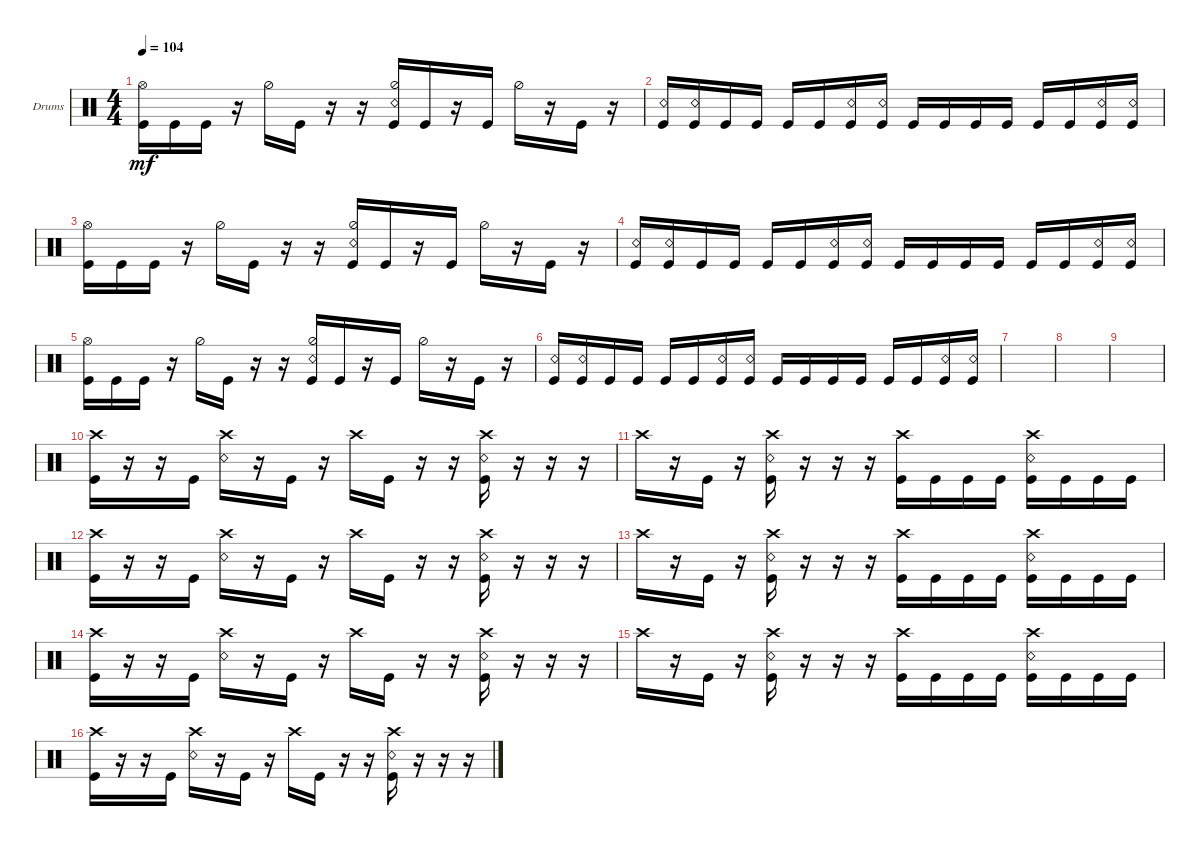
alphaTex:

\defaultSystemsLayout 4
\bracketExtendMode groupsimilarinstruments
\firstSystemTrackNameOrientation horizontal
\otherSystemsTrackNameOrientation horizontal
\track ("Drums" "Drums") {instrument percussion}
\staff {score}
\articulation defaults
\ts (4 4)
\tempo 104
\clef neutral
\ks c
("Kick (hit)" "Hi-Hat (open)").16{dy mf} "Kick (hit)".16 "Kick (hit)".16 r.16 "Hi-Hat (half)".16 "Kick (hit)".16 r.16 r.16 ("Kick (hit)" "Hi-Hat (half)" "Snare (rim shot)").16 "Kick (hit)".16 r.16 "Kick (hit)".16 "Hi-Hat (half)".16 r.16 "Kick (hit)".16 r.16 |
("Kick (hit)" "Snare (rim shot)").16 ("Kick (hit)" "Snare (rim shot)").16 "Kick (hit)".16 "Kick (hit)".16 "Kick (hit)".16 "Kick (hit)".16 ("Kick (hit)" "Snare (rim shot)").16 ("Kick (hit)" "Snare (rim shot)").16 "Kick (hit)".16 "Kick (hit)".16 "Kick (hit)".16 "Kick (hit)".16 "Kick (hit)".16 "Kick (hit)".16 ("Kick (hit)" "Snare (rim shot)").16 ("Kick (hit)" "Snare (rim shot)").16 |
("Kick (hit)" "Hi-Hat (open)").16 "Kick (hit)".16 "Kick (hit)".16 r.16 "Hi-Hat (half)".16 "Kick (hit)".16 r.16 r.16 ("Kick (hit)" "Hi-Hat (half)" "Snare (rim shot)").16 "Kick (hit)".16 r.16 "Kick (hit)".16 "Hi-Hat (half)".16 r.16 "Kick (hit)".16 r.16 |
("Kick (hit)" "Snare (rim shot)").16 ("Kick (hit)" "Snare (rim shot)").16 "Kick (hit)".16 "Kick (hit)".16 "Kick (hit)".16 "Kick (hit)".16 ("Kick (hit)" "Snare (rim shot)").16 ("Kick (hit)" "Snare (rim shot)").16 "Kick (hit)".16 "Kick (hit)".16 "Kick (hit)".16 "Kick (hit)".16 "Kick (hit)".16 "Kick (hit)".16 ("Kick (hit)" "Snare (rim shot)").16 ("Kick (hit)" "Snare (rim shot)").16 |
("Kick (hit)" "Hi-Hat (open)").16 "Kick (hit)".16 "Kick (hit)".16 r.16 "Hi-Hat (half)".16 "Kick (hit)".16 r.16 r.16 ("Kick (hit)" "Hi-Hat (half)" "Snare (rim shot)").16 "Kick (hit)".16 r.16 "Kick (hit)".16 "Hi-Hat (half)".16 r.16 "Kick (hit)".16 r.16 |
("Kick (hit)" "Snare (rim shot)").16 ("Kick (hit)" "Snare (rim shot)").16 "Kick (hit)".16 "Kick (hit)".16 "Kick (hit)".16 "Kick (hit)".16 ("Kick (hit)" "Snare (rim shot)").16 ("Kick (hit)" "Snare (rim shot)").16 "Kick (hit)".16 "Kick (hit)".16 "Kick (hit)".16 "Kick (hit)".16 "Kick (hit)".16 "Kick (hit)".16 ("Kick (hit)" "Snare (rim shot)").16 ("Kick (hit)" "Snare (rim shot)").16 |
|
|
|
("Kick (hit)" "Crash high (hit)").16 r.16 r.16 "Kick (hit)".16 ("Crash high (hit)" "Snare (rim shot)").16 r.16 "Kick (hit)".16 r.16 "Crash high (hit)".16 "Kick (hit)".16 r.16 r.16 ("Kick (hit)" "Crash high (hit)" "Snare (rim shot)").16 r.16 r.16 r.16 |
"Crash high (hit)".16 r.16 "Kick (hit)".16 r.16 ("Kick (hit)" "Crash high (hit)" "Snare (rim shot)").16 r.16 r.16 r.16 ("Kick (hit)" "Crash high (hit)").16 "Kick (hit)".16 "Kick (hit)".16 "Kick (hit)".16 ("Kick (hit)" "Crash high (hit)" "Snare (rim shot)").16 "Kick (hit)".16 "Kick (hit)".16 "Kick (hit)".16 |
("Kick (hit)" "Crash high (hit)").16 r.16 r.16 "Kick (hit)".16 ("Crash high (hit)" "Snare (rim shot)").16 r.16 "Kick (hit)".16 r.16 "Crash high (hit)".16 "Kick (hit)".16 r.16 r.16 ("Kick (hit)" "Crash high (hit)" "Snare (rim shot)").16 r.16 r.16 r.16 |
"Crash high (hit)".16 r.16 "Kick (hit)".16 r.16 ("Kick (hit)" "Crash high (hit)" "Snare (rim shot)").16 r.16 r.16 r.16 ("Kick (hit)" "Crash high (hit)").16 "Kick (hit)".16 "Kick (hit)".16 "Kick (hit)".16 ("Kick (hit)" "Crash high (hit)" "Snare (rim shot)").16 "Kick (hit)".16 "Kick (hit)".16 "Kick (hit)".16 |
("Kick (hit)" "Crash high (hit)").16 r.16 r.16 "Kick (hit)".16 ("Crash high (hit)" "Snare (rim shot)").16 r.16 "Kick (hit)".16 r.16 "Crash high (hit)".16 "Kick (hit)".16 r.16 r.16 ("Kick (hit)" "Crash high (hit)" "Snare (rim shot)").16 r.16 r.16 r.16 |
"Crash high (hit)".16 r.16 "Kick (hit)".16 r.16 ("Kick (hit)" "Crash high (hit)" "Snare (rim shot)").16 r.16 r.16 r.16 ("Kick (hit)" "Crash high (hit)").16 "Kick (hit)".16 "Kick (hit)".16 "Kick (hit)".16 ("Kick (hit)" "Crash high (hit)" "Snare (rim shot)").16 "Kick (hit)".16 "Kick (hit)".16 "Kick (hit)".16 |
("Kick (hit)" "Crash high (hit)").16 r.16 r.16 "Kick (hit)".16 ("Crash high (hit)" "Snare (rim shot)").16 r.16 "Kick (hit)".16 r.16 "Crash high (hit)".16 "Kick (hit)".16 r.16 r.16 ("Kick (hit)" "Crash high (hit)" "Snare (rim shot)").16 r.16 r.16 r.16
